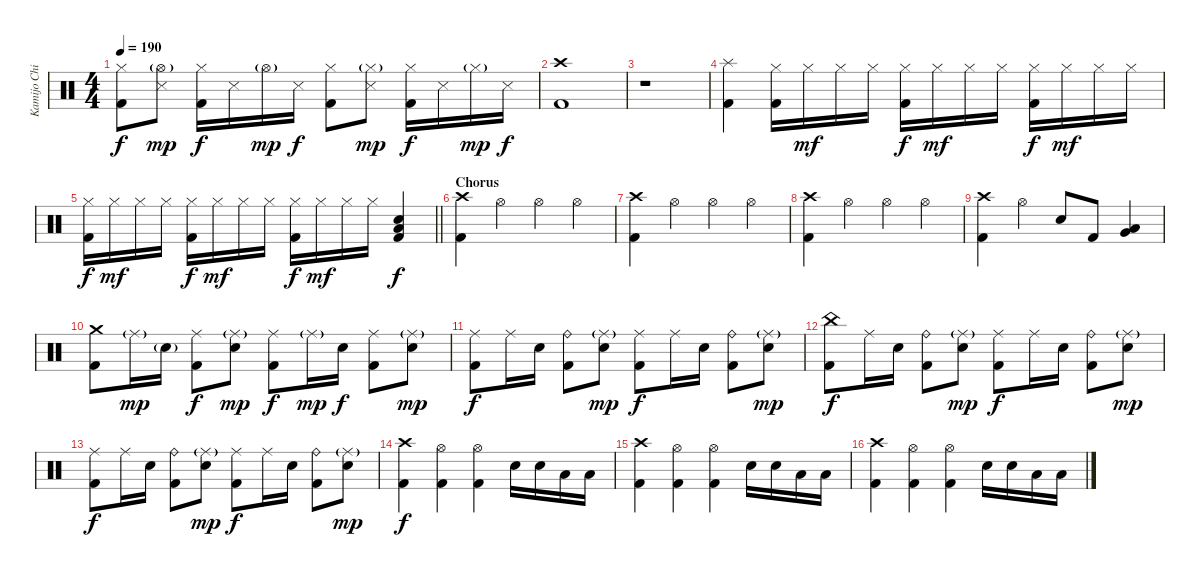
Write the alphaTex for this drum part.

\track ("Kamijo Chihiro" "Kamijo Chi") {instrument percussion}
\staff {score}
\articulation defaults
\ts (4 4)
\tempo 190
\clef neutral
\ks c
("Hi-Hat (closed)" "Kick (hit) 2").8{dy f} ("Hi-Hat (open)"{g} "Snare (side stick) 3").8{dy mp} ("Hi-Hat (closed)" "Kick (hit) 2").16{dy f} "Snare (side stick) 3".16 "Hi-Hat (open)"{g}.16{dy mp} "Snare (side stick) 3".16{dy f} ("Hi-Hat (closed)" "Kick (hit) 2").8 ("Hi-Hat (closed)"{g} "Snare (side stick) 3").8{dy mp} ("Hi-Hat (closed)" "Kick (hit) 2").16{dy f} "Snare (side stick) 3".16 "Hi-Hat (closed)"{g}.16{dy mp} "Snare (side stick) 3".16{dy f} |
("Crash high (hit)" "Kick (hit) 2").1 |
r.1 |
("Splash (hit)" "Kick (hit) 2").4 ("Hi-Hat (closed)" "Kick (hit) 2").16 "Hi-Hat (closed)".16{dy mf} "Hi-Hat (closed)".16 "Hi-Hat (closed)".16 ("Hi-Hat (closed)" "Kick (hit) 2").16{dy f} "Hi-Hat (closed)".16{dy mf} "Hi-Hat (closed)".16 "Hi-Hat (closed)".16 ("Hi-Hat (closed)" "Kick (hit) 2").16{dy f} "Hi-Hat (closed)".16{dy mf} "Hi-Hat (closed)".16 "Hi-Hat (closed)".16 |
\barLineRight lightlight
("Hi-Hat (closed)" "Kick (hit) 2").16{dy f} "Hi-Hat (closed)".16{dy mf} "Hi-Hat (closed)".16 "Hi-Hat (closed)".16 ("Hi-Hat (closed)" "Kick (hit) 2").16{dy f} "Hi-Hat (closed)".16{dy mf} "Hi-Hat (closed)".16 "Hi-Hat (closed)".16 ("Hi-Hat (closed)" "Kick (hit) 2").16{dy f} "Hi-Hat (closed)".16{dy mf} "Hi-Hat (closed)".16 "Hi-Hat (closed)".16 ("Snare (hit) 2" "Low Floor Tom (hit)" "Kick (hit) 2").4{dy f} |
\section ("" "Chorus")
("Crash high (hit)" "Kick (hit) 2").4 "Hi-Hat (open)".4 "Hi-Hat (open)".4 "Hi-Hat (open)".4 |
("Crash high (hit)" "Kick (hit) 2").4 "Hi-Hat (open)".4 "Hi-Hat (open)".4 "Hi-Hat (open)".4 |
("Crash high (hit)" "Kick (hit) 2").4 "Hi-Hat (open)".4 "Hi-Hat (open)".4 "Hi-Hat (open)".4 |
("Crash high (hit)" "Kick (hit) 2").4 "Hi-Hat (open)".4 "Snare (hit) 2".8 "Kick (hit) 2".8 ("Low Tom (hit)" "Very Low Tom (hit)").4 |
("Crash medium (hit)" "Kick (hit) 2").8 "Ride (middle)"{g}.16{dy mp} "Snare (hit) 2"{g}.16 ("Ride (middle)" "Kick (hit) 2").8{dy f} ("Ride (middle)"{g} "Snare (hit) 2").8{dy mp} ("Ride (middle)" "Kick (hit) 2").8{dy f} "Ride (middle)"{g}.16{dy mp} "Snare (hit) 2".16{dy f} ("Ride (middle)" "Kick (hit) 2").8 ("Ride (middle)"{g} "Snare (hit) 2").8{dy mp} |
("Ride (middle)" "Kick (hit) 2").8{dy f} "Ride (middle)".16 "Snare (hit) 2".16 ("Ride (bell)" "Kick (hit) 2").8 ("Ride (middle)"{g} "Snare (hit) 2").8{dy mp} ("Ride (middle)" "Kick (hit) 2").8{dy f} "Ride (middle)".16 "Snare (hit) 2".16 ("Ride (bell)" "Kick (hit) 2").8 ("Ride (middle)"{g} "Snare (hit) 2").8{dy mp} |
("China (hit)" "Kick (hit) 2").8{dy f} "Ride (middle)".16 "Snare (hit) 2".16 ("Ride (bell)" "Kick (hit) 2").8 ("Ride (middle)"{g} "Snare (hit) 2").8{dy mp} ("Ride (middle)" "Kick (hit) 2").8{dy f} "Ride (middle)".16 "Snare (hit) 2".16 ("Ride (bell)" "Kick (hit) 2").8 ("Ride (middle)"{g} "Snare (hit) 2").8{dy mp} |
("Ride (middle)" "Kick (hit) 2").8{dy f} "Ride (middle)".16 "Snare (hit) 2".16 ("Ride (bell)" "Kick (hit) 2").8 ("Ride (middle)"{g} "Snare (hit) 2").8{dy mp} ("Ride (middle)" "Kick (hit) 2").8{dy f} "Ride (middle)".16 "Snare (hit) 2".16 ("Ride (bell)" "Kick (hit) 2").8 ("Ride (middle)"{g} "Snare (hit) 2").8{dy mp} |
("Crash high (hit)" "Kick (hit) 2").4{dy f} ("Hi-Hat (open)" "Kick (hit) 2").4 ("Hi-Hat (open)" "Kick (hit) 2").4 "Snare (hit) 2".16 "Snare (hit) 2".16 "Low Tom (hit)".16 "Low Tom (hit)".16 |
("Crash high (hit)" "Kick (hit) 2").4 ("Hi-Hat (open)" "Kick (hit) 2").4 ("Hi-Hat (open)" "Kick (hit) 2").4 "Snare (hit) 2".16 "Snare (hit) 2".16 "Low Tom (hit)".16 "Low Tom (hit)".16 |
("Crash high (hit)" "Kick (hit) 2").4 ("Hi-Hat (open)" "Kick (hit) 2").4 ("Hi-Hat (open)" "Kick (hit) 2").4 "Snare (hit) 2".16 "Snare (hit) 2".16 "Low Tom (hit)".16 "Low Tom (hit)".16
